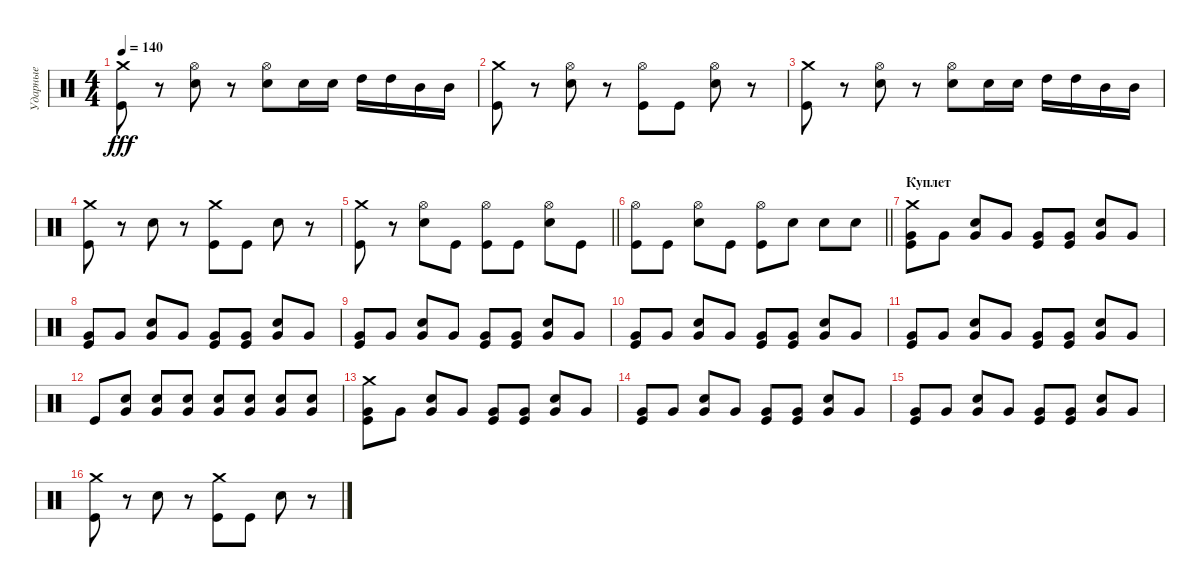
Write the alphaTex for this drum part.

\track ("Ударные" "Ударные") {instrument percussion}
\staff {score}
\articulation defaults
\ts (4 4)
\tempo 140
\clef neutral
\ks c
("Crash medium (hit)" "Kick (hit)").8{dy fff} r.8 ("Hi-Hat (open)" "Electric Snare (hit)").8 r.8 ("Hi-Hat (open)" "Electric Snare (hit)").8 "Electric Snare (hit)".16 "Electric Snare (hit)".16 "High Tom (hit)".16 "High Tom (hit)".16 "Mid Tom (hit)".16 "Mid Tom (hit)".16 |
("Crash medium (hit)" "Kick (hit)").8 r.8 ("Hi-Hat (open)" "Electric Snare (hit)").8 r.8 ("Hi-Hat (open)" "Kick (hit)").8 "Kick (hit)".8 ("Hi-Hat (open)" "Electric Snare (hit)").8 r.8 |
("Crash medium (hit)" "Kick (hit)").8 r.8 ("Hi-Hat (open)" "Electric Snare (hit)").8 r.8 ("Hi-Hat (open)" "Electric Snare (hit)").8 "Electric Snare (hit)".16 "Electric Snare (hit)".16 "High Tom (hit)".16 "High Tom (hit)".16 "Mid Tom (hit)".16 "Mid Tom (hit)".16 |
("Crash medium (hit)" "Kick (hit)").8 r.8 "Electric Snare (hit)".8 r.8 ("Crash medium (hit)" "Kick (hit)").8 "Kick (hit)".8 "Electric Snare (hit)".8 r.8 |
\barLineRight lightlight
("Crash medium (hit)" "Kick (hit)").8 r.8 ("Hi-Hat (open)" "Electric Snare (hit)").8 "Kick (hit)".8 ("Hi-Hat (open)" "Kick (hit)").8 "Kick (hit)".8 ("Hi-Hat (open)" "Electric Snare (hit)").8 "Kick (hit)".8 |
\barLineRight lightlight
("Hi-Hat (open)" "Kick (hit)").8 "Kick (hit)".8 ("Hi-Hat (open)" "Electric Snare (hit)").8 "Kick (hit)".8 ("Hi-Hat (open)" "Kick (hit)").8 "Electric Snare (hit)".8 "Electric Snare (hit)".8 "Electric Snare (hit)".8 |
\section ("" "Куплет")
("Crash medium (hit)" "Kick (hit)" "Very Low Tom (hit)").8 "Very Low Tom (hit)".8 ("Electric Snare (hit)" "Very Low Tom (hit)").8 "Very Low Tom (hit)".8 ("Kick (hit)" "Very Low Tom (hit)").8 ("Kick (hit)" "Very Low Tom (hit)").8 ("Electric Snare (hit)" "Very Low Tom (hit)").8 "Very Low Tom (hit)".8 |
("Kick (hit)" "Very Low Tom (hit)").8 "Very Low Tom (hit)".8 ("Electric Snare (hit)" "Very Low Tom (hit)").8 "Very Low Tom (hit)".8 ("Kick (hit)" "Very Low Tom (hit)").8 ("Kick (hit)" "Very Low Tom (hit)").8 ("Electric Snare (hit)" "Very Low Tom (hit)").8 "Very Low Tom (hit)".8 |
("Kick (hit)" "Very Low Tom (hit)").8 "Very Low Tom (hit)".8 ("Electric Snare (hit)" "Very Low Tom (hit)").8 "Very Low Tom (hit)".8 ("Kick (hit)" "Very Low Tom (hit)").8 ("Kick (hit)" "Very Low Tom (hit)").8 ("Electric Snare (hit)" "Very Low Tom (hit)").8 "Very Low Tom (hit)".8 |
("Kick (hit)" "Very Low Tom (hit)").8 "Very Low Tom (hit)".8 ("Electric Snare (hit)" "Very Low Tom (hit)").8 "Very Low Tom (hit)".8 ("Kick (hit)" "Very Low Tom (hit)").8 ("Kick (hit)" "Very Low Tom (hit)").8 ("Electric Snare (hit)" "Very Low Tom (hit)").8 "Very Low Tom (hit)".8 |
("Kick (hit)" "Very Low Tom (hit)").8 "Very Low Tom (hit)".8 ("Electric Snare (hit)" "Very Low Tom (hit)").8 "Very Low Tom (hit)".8 ("Kick (hit)" "Very Low Tom (hit)").8 ("Kick (hit)" "Very Low Tom (hit)").8 ("Electric Snare (hit)" "Very Low Tom (hit)").8 "Very Low Tom (hit)".8 |
"Kick (hit)".8 ("Electric Snare (hit)" "Very Low Tom (hit)").8 ("Electric Snare (hit)" "Very Low Tom (hit)").8 ("Electric Snare (hit)" "Very Low Tom (hit)").8 ("Electric Snare (hit)" "Very Low Tom (hit)").8 ("Electric Snare (hit)" "Very Low Tom (hit)").8 ("Electric Snare (hit)" "Very Low Tom (hit)").8 ("Electric Snare (hit)" "Very Low Tom (hit)").8 |
("Crash medium (hit)" "Kick (hit)" "Very Low Tom (hit)").8 "Very Low Tom (hit)".8 ("Electric Snare (hit)" "Very Low Tom (hit)").8 "Very Low Tom (hit)".8 ("Kick (hit)" "Very Low Tom (hit)").8 ("Kick (hit)" "Very Low Tom (hit)").8 ("Electric Snare (hit)" "Very Low Tom (hit)").8 "Very Low Tom (hit)".8 |
("Kick (hit)" "Very Low Tom (hit)").8 "Very Low Tom (hit)".8 ("Electric Snare (hit)" "Very Low Tom (hit)").8 "Very Low Tom (hit)".8 ("Kick (hit)" "Very Low Tom (hit)").8 ("Kick (hit)" "Very Low Tom (hit)").8 ("Electric Snare (hit)" "Very Low Tom (hit)").8 "Very Low Tom (hit)".8 |
("Kick (hit)" "Very Low Tom (hit)").8 "Very Low Tom (hit)".8 ("Electric Snare (hit)" "Very Low Tom (hit)").8 "Very Low Tom (hit)".8 ("Kick (hit)" "Very Low Tom (hit)").8 ("Kick (hit)" "Very Low Tom (hit)").8 ("Electric Snare (hit)" "Very Low Tom (hit)").8 "Very Low Tom (hit)".8 |
("Crash medium (hit)" "Kick (hit)").8 r.8 "Electric Snare (hit)".8 r.8 ("Crash medium (hit)" "Kick (hit)").8 "Kick (hit)".8 "Electric Snare (hit)".8 r.8
